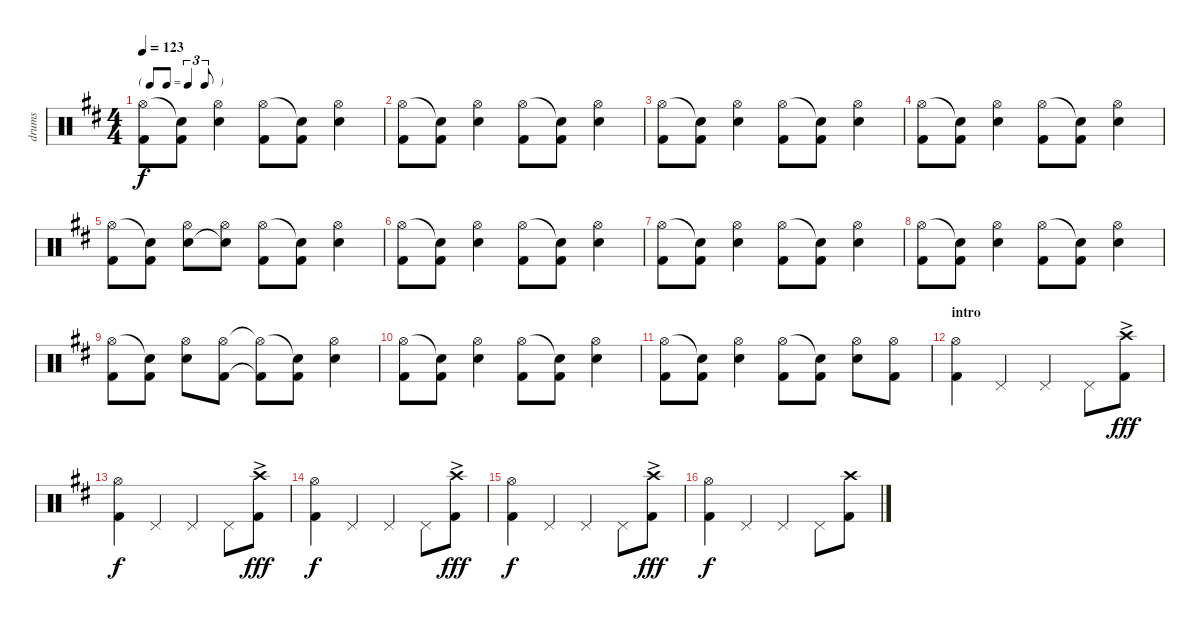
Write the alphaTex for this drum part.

\track ("drums" "drums") {instrument percussion}
\staff {score}
\articulation defaults
\ts (4 4)
\tf triplet8th
\tempo 123
\clef neutral
\ks d
("Hi-Hat (open)" "Kick (hit) 2").8{dy f} ("Snare (hit)"{t} "Kick (hit) 2").8 ("Hi-Hat (open)" "Snare (hit) 2").4 ("Hi-Hat (open)" "Kick (hit) 2").8 ("Snare (hit)"{t} "Kick (hit) 2").8 ("Hi-Hat (open)" "Snare (hit) 2").4 |
("Hi-Hat (open)" "Kick (hit) 2").8 ("Snare (hit)"{t} "Kick (hit) 2").8 ("Hi-Hat (open)" "Snare (hit) 2").4 ("Hi-Hat (open)" "Kick (hit) 2").8 ("Snare (hit)"{t} "Kick (hit) 2").8 ("Hi-Hat (open)" "Snare (hit) 2").4 |
("Hi-Hat (open)" "Kick (hit) 2").8 ("Snare (hit)"{t} "Kick (hit) 2").8 ("Hi-Hat (open)" "Snare (hit) 2").4 ("Hi-Hat (open)" "Kick (hit) 2").8 ("Snare (hit)"{t} "Kick (hit) 2").8 ("Hi-Hat (open)" "Snare (hit) 2").4 |
("Hi-Hat (open)" "Kick (hit) 2").8 ("Snare (hit)"{t} "Kick (hit) 2").8 ("Hi-Hat (open)" "Snare (hit) 2").4 ("Hi-Hat (open)" "Kick (hit) 2").8 ("Snare (hit)"{t} "Kick (hit) 2").8 ("Hi-Hat (open)" "Snare (hit) 2").4 |
("Hi-Hat (open)" "Kick (hit) 2").8 ("Snare (hit)"{t} "Kick (hit) 2").8 ("Hi-Hat (open)" "Snare (hit) 2").8 ("Hi-Hat (open)" "Snare (hit)"{t}).8 ("Hi-Hat (open)" "Kick (hit) 2").8 ("Snare (hit)"{t} "Kick (hit) 2").8 ("Hi-Hat (open)" "Snare (hit) 2").4 |
("Hi-Hat (open)" "Kick (hit) 2").8 ("Snare (hit)"{t} "Kick (hit) 2").8 ("Hi-Hat (open)" "Snare (hit) 2").4 ("Hi-Hat (open)" "Kick (hit) 2").8 ("Snare (hit)"{t} "Kick (hit) 2").8 ("Hi-Hat (open)" "Snare (hit) 2").4 |
("Hi-Hat (open)" "Kick (hit) 2").8 ("Snare (hit)"{t} "Kick (hit) 2").8 ("Hi-Hat (open)" "Snare (hit) 2").4 ("Hi-Hat (open)" "Kick (hit) 2").8 ("Snare (hit)"{t} "Kick (hit) 2").8 ("Hi-Hat (open)" "Snare (hit) 2").4 |
("Hi-Hat (open)" "Kick (hit) 2").8 ("Snare (hit)"{t} "Kick (hit) 2").8 ("Hi-Hat (open)" "Snare (hit) 2").4 ("Hi-Hat (open)" "Kick (hit) 2").8 ("Snare (hit)"{t} "Kick (hit) 2").8 ("Hi-Hat (open)" "Snare (hit) 2").4 |
("Hi-Hat (open)" "Kick (hit) 2").8 ("Snare (hit)"{t} "Kick (hit) 2").8 ("Hi-Hat (open)" "Snare (hit) 2").8 ("Hi-Hat (open)" "Kick (hit) 2").8 ("Hi-Hat (open)"{t} "Kick (hit) 2"{t}).8 ("Snare (hit)"{t} "Kick (hit) 2").8 ("Hi-Hat (open)" "Snare (hit) 2").4 |
("Hi-Hat (open)" "Kick (hit) 2").8 ("Snare (hit)"{t} "Kick (hit) 2").8 ("Hi-Hat (open)" "Snare (hit) 2").4 ("Hi-Hat (open)" "Kick (hit) 2").8 ("Snare (hit)"{t} "Kick (hit) 2").8 ("Hi-Hat (open)" "Snare (hit) 2").4 |
("Hi-Hat (open)" "Kick (hit) 2").8 ("Snare (hit)"{t} "Kick (hit) 2").8 ("Hi-Hat (open)" "Snare (hit) 2").4 ("Hi-Hat (open)" "Kick (hit) 2").8 ("Snare (hit)"{t} "Kick (hit) 2").8 ("Hi-Hat (open)" "Snare (hit) 2").8 ("Hi-Hat (open)" "Kick (hit) 2").8 |
\section ("" "intro")
("Hi-Hat (open)" "Kick (hit) 2").4 "Pedal Hi-Hat (hit)".4 "Pedal Hi-Hat (hit)".4 "Pedal Hi-Hat (hit)".8 ("Crash high (hit)"{ac} "Kick (hit) 2").8{dy fff} |
("Hi-Hat (open)" "Kick (hit) 2").4{dy f} "Pedal Hi-Hat (hit)".4 "Pedal Hi-Hat (hit)".4 "Pedal Hi-Hat (hit)".8 ("Crash high (hit)"{ac} "Kick (hit) 2").8{dy fff} |
("Hi-Hat (open)" "Kick (hit) 2").4{dy f} "Pedal Hi-Hat (hit)".4 "Pedal Hi-Hat (hit)".4 "Pedal Hi-Hat (hit)".8 ("Crash high (hit)"{ac} "Kick (hit) 2").8{dy fff} |
("Hi-Hat (open)" "Kick (hit) 2").4{dy f} "Pedal Hi-Hat (hit)".4 "Pedal Hi-Hat (hit)".4 "Pedal Hi-Hat (hit)".8 ("Crash high (hit)"{ac} "Kick (hit) 2").8{dy fff} |
("Hi-Hat (open)" "Kick (hit) 2").4{dy f} "Pedal Hi-Hat (hit)".4 "Pedal Hi-Hat (hit)".4 "Pedal Hi-Hat (hit)".8 ("Crash high (hit)" "Kick (hit) 2").8
